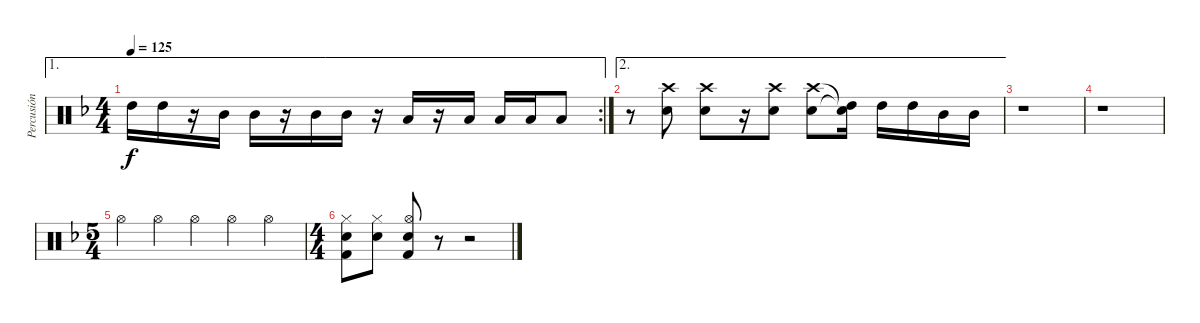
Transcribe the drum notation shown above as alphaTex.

\track ("Percusión" "Percusión") {instrument percussion}
\staff {score}
\articulation defaults
\ae 1
\rc 2
\ts (4 4)
\tempo 125
\clef neutral
\ks f "High Tom (hit)".16{dy f} "High Tom (hit)".16
r.16 "Mid Tom (hit)".16 "Mid Tom (hit)".16 r.16 "Mid Tom (hit)".16 "Mid Tom (hit)".16 r.16 "Low Floor Tom (hit)".16 r.16 "Low Floor Tom (hit)".16 "Low Floor Tom (hit)".16 "Low Floor Tom (hit)".16 "Low Floor Tom (hit)".8 |
\ae 2
r.8 ("Crash high (hit)" "Snare (hit) 2").8 ("Crash high (hit)" "Snare (hit) 2").8 r.16 ("Crash high (hit)" "Snare (hit) 2").8 ("Crash high (hit)" "Snare (hit) 2").8 ("Snare (hit)"{t} "High Tom (hit)"{t}).16 "High Tom (hit)".16 "High Tom (hit)".16 "Mid Tom (hit)".16 "Mid Tom (hit)".16 |
r.1 |
r.1 |
\ts (5 4)
"Hi-Hat (open)".4 "Hi-Hat (open)".4 "Hi-Hat (open)".4 "Hi-Hat (open)".4 "Hi-Hat (open)".4 |
\ts (4 4)
("Snare (hit) 2" "Hi-Hat (closed)" "Kick (hit) 2").8 ("Snare (hit) 2" "Hi-Hat (closed)").8 ("Hi-Hat (open)" "Snare (hit) 2" "Kick (hit) 2").8 r.8 r.2
